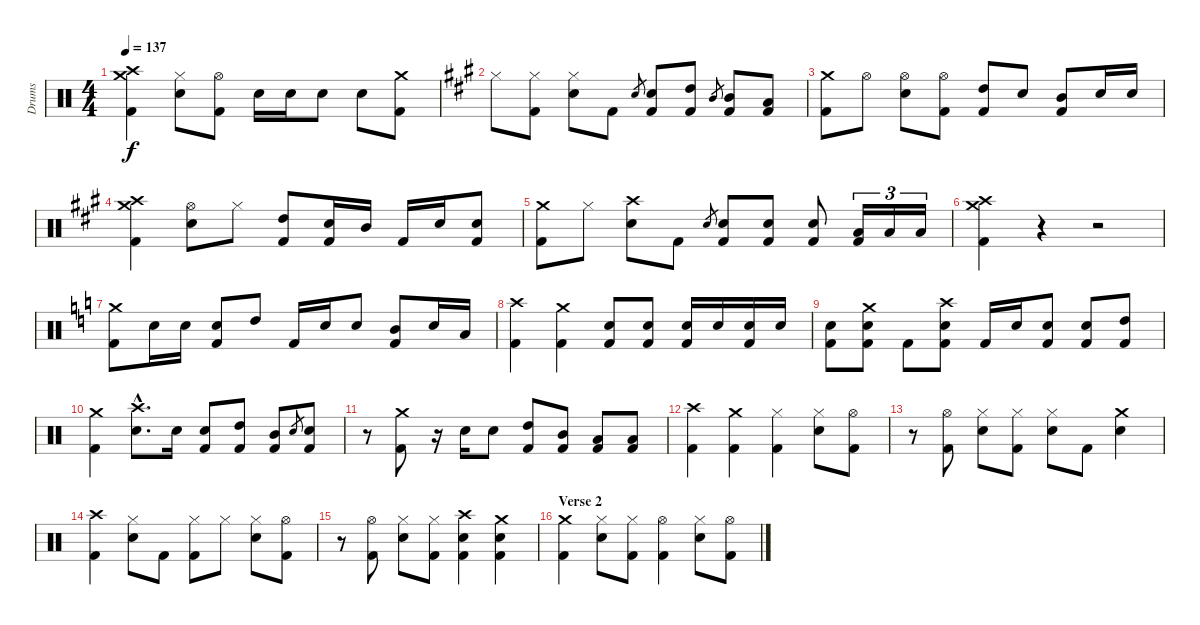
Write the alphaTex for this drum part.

\track ("Drums" "Drums") {instrument percussion}
\staff {score}
\articulation defaults
\ts (4 4)
\tempo 137
\clef neutral
\ks c
("Crash high (hit)" "Crash medium (hit)" "Kick (hit) 2").4{dy f} ("Hi-Hat (closed)" "Snare (hit) 2").8 ("Hi-Hat (open)" "Kick (hit) 2").8 "Snare (hit) 2".16 "Snare (hit) 2".16 "Snare (hit) 2".8 "Snare (hit) 2".8 ("Crash medium (hit)" "Kick (hit) 2").8 |
\ks a "Hi-Hat (closed)".8
("Hi-Hat (closed)" "Kick (hit) 2").8 ("Hi-Hat (closed)" "Snare (hit) 2").8 "Kick (hit) 2".8 "Snare (hit) 2".8{gr} ("Snare (hit) 2" "Kick (hit) 2").8 ("High Tom (hit)" "Kick (hit) 2").8 "Mid Tom (hit)".8{gr} ("Mid Tom (hit)" "Kick (hit) 2").8 ("Low Tom (hit)" "Kick (hit) 2").8 |
("Crash medium (hit)" "Kick (hit) 2").8 "Hi-Hat (open)".8 ("Hi-Hat (open)" "Snare (hit) 2").8 ("Hi-Hat (open)" "Kick (hit) 2").8 ("High Tom (hit)" "Kick (hit) 2").8 "Snare (hit) 2".8 ("Mid Tom (hit)" "Kick (hit) 2").8 "Snare (hit) 2".16 "Snare (hit) 2".16 |
("Crash medium (hit)" "Crash high (hit)" "Kick (hit) 2").4 ("Hi-Hat (open)" "Snare (hit) 2").8 "Hi-Hat (closed)".8 ("High Tom (hit)" "Kick (hit) 2").8 ("Snare (hit) 2" "Kick (hit) 2").16 "Mid Tom (hit)".16 "Kick (hit) 2".16 "Snare (hit) 2".16 ("Snare (hit) 2" "Kick (hit) 2").8 |
("Crash medium (hit)" "Kick (hit) 2").8 "Hi-Hat (closed)".8 ("Crash high (hit)" "Snare (hit) 2").8 "Kick (hit) 2".8 "Snare (hit) 2".8{gr} ("Snare (hit) 2" "Kick (hit) 2").8 ("Snare (hit) 2" "Kick (hit) 2").8 ("Snare (hit) 2" "Kick (hit) 2").8 ("Low Tom (hit)" "Kick (hit) 2").16{tu (3 2)} "Low Tom (hit)".16{tu (3 2)} "Low Tom (hit)".16{tu (3 2)} |
("Crash high (hit)" "Crash medium (hit)" "Kick (hit) 2").4 r.4 r.2 |
\ks c
("Crash medium (hit)" "Kick (hit) 2").8 "Snare (hit) 2".16 "Snare (hit) 2".16 ("Snare (hit) 2" "Kick (hit) 2").8 "High Tom (hit)".8 "Kick (hit) 2".16 "Snare (hit) 2".16 "Snare (hit) 2".8 ("Mid Tom (hit)" "Kick (hit) 2").8 "Snare (hit) 2".16 "Low Tom (hit)".16 |
("Crash high (hit)" "Kick (hit) 2").4 ("Crash medium (hit)" "Kick (hit) 2").4 ("Snare (hit) 2" "Kick (hit) 2").8 ("Snare (hit) 2" "Kick (hit) 2").8 ("Snare (hit) 2" "Kick (hit) 2").16 "Snare (hit) 2".16 ("Snare (hit) 2" "Kick (hit) 2").16 "Snare (hit) 2".16 |
("Snare (hit) 2" "Kick (hit) 2").8 ("Crash medium (hit)" "Snare (hit) 2" "Kick (hit) 2").8 "Kick (hit) 2".8 ("Crash high (hit)" "Snare (hit) 2" "Kick (hit) 2").8 "Kick (hit) 2".16 "Snare (hit) 2".16 ("Snare (hit) 2" "Kick (hit) 2").8 ("Snare (hit) 2" "Kick (hit) 2").8 ("High Tom (hit)" "Kick (hit) 2").8 |
("Crash medium (hit)" "Kick (hit) 2").4 ("Crash high (hit)"{hac} "Snare (hit) 2"{hac}).8{d} "Snare (hit) 2".16 ("Snare (hit) 2" "Kick (hit) 2").8 ("High Tom (hit)" "Kick (hit) 2").8 ("Mid Tom (hit)" "Kick (hit) 2").8 "Snare (hit) 2".8{gr} ("Snare (hit) 2" "Kick (hit) 2").8 |
r.8 ("Crash medium (hit)" "Kick (hit) 2").8 r.16 "Snare (hit) 2".16 "Snare (hit) 2".8 ("High Tom (hit)" "Kick (hit) 2").8 ("Mid Tom (hit)" "Kick (hit) 2").8 ("Low Tom (hit)" "Kick (hit) 2").8 ("Low Floor Tom (hit)" "Kick (hit) 2").8 |
("Crash high (hit)" "Kick (hit) 2").4 ("Crash medium (hit)" "Kick (hit) 2").4 ("Hi-Hat (closed)" "Kick (hit) 2").4 ("Hi-Hat (closed)" "Snare (hit) 2").8 ("Hi-Hat (open)" "Kick (hit) 2").8 |
r.8 ("Hi-Hat (open)" "Kick (hit) 2").8 ("Hi-Hat (closed)" "Snare (hit) 2").8 ("Hi-Hat (closed)" "Kick (hit) 2").8 ("Hi-Hat (closed)" "Snare (hit) 2").8 "Kick (hit) 2".8 ("Crash medium (hit)" "Snare (hit) 2").4 |
("Crash high (hit)" "Kick (hit) 2").4 ("Hi-Hat (closed)" "Snare (hit) 2").8 "Kick (hit) 2".8 ("Hi-Hat (closed)" "Kick (hit) 2").8 "Hi-Hat (closed)".8 ("Hi-Hat (closed)" "Snare (hit) 2").8 ("Hi-Hat (open)" "Kick (hit) 2").8 |
r.8 ("Hi-Hat (open)" "Kick (hit) 2").8 ("Hi-Hat (closed)" "Snare (hit) 2").8 ("Hi-Hat (closed)" "Kick (hit) 2").8 ("Crash high (hit)" "Snare (hit) 2" "Kick (hit) 2").4 ("Crash medium (hit)" "Snare (hit) 2" "Kick (hit) 2").4 |
\section ("" "Verse 2")
("Crash medium (hit)" "Kick (hit) 2").4 ("Hi-Hat (closed)" "Snare (hit) 2").8 ("Hi-Hat (closed)" "Kick (hit) 2").8 ("Hi-Hat (open)" "Kick (hit) 2").4 ("Hi-Hat (closed)" "Snare (hit) 2").8 ("Hi-Hat (open)" "Kick (hit) 2").8
